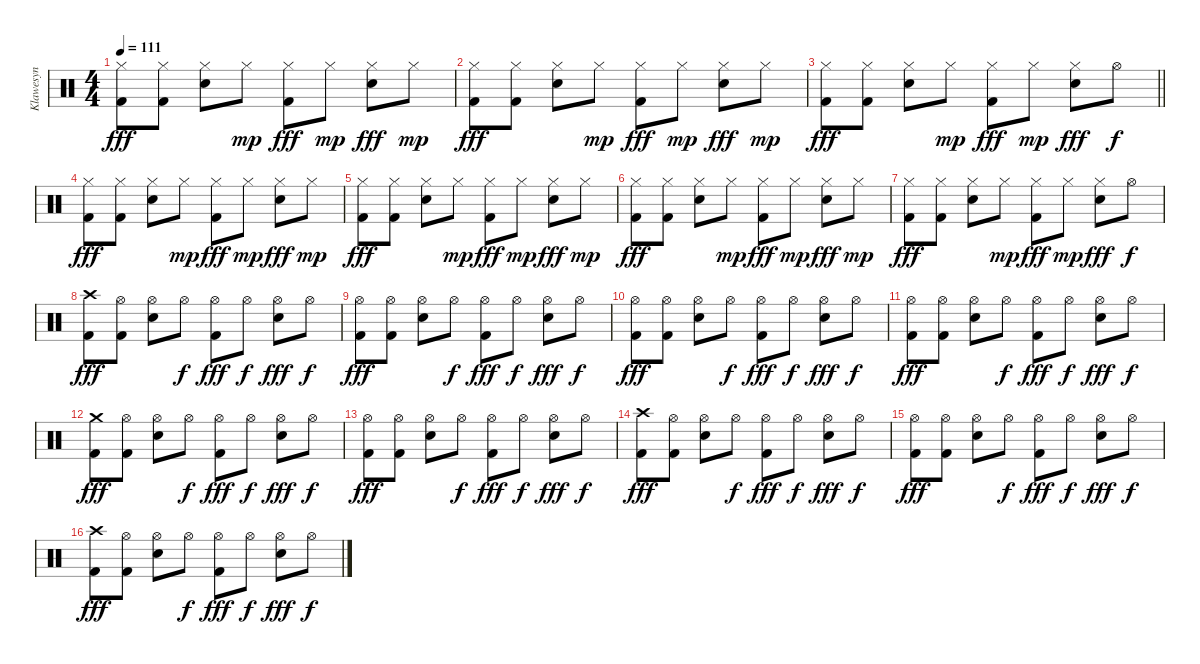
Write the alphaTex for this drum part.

\track ("Klawesyn" "Klawesyn") {instrument percussion}
\staff {score}
\articulation defaults
\ts (4 4)
\tempo 111
\clef neutral
\ks c
("Hi-Hat (closed)" "Kick (hit) 2").8{dy fff} ("Hi-Hat (closed)" "Kick (hit) 2").8 ("Hi-Hat (closed)" "Snare (hit) 2").8 "Hi-Hat (closed)".8{dy mp} ("Hi-Hat (closed)" "Kick (hit) 2").8{dy fff} "Hi-Hat (closed)".8{dy mp} ("Hi-Hat (closed)" "Snare (hit) 2").8{dy fff} "Hi-Hat (closed)".8{dy mp} |
("Hi-Hat (closed)" "Kick (hit) 2").8{dy fff} ("Hi-Hat (closed)" "Kick (hit) 2").8 ("Hi-Hat (closed)" "Snare (hit) 2").8 "Hi-Hat (closed)".8{dy mp} ("Hi-Hat (closed)" "Kick (hit) 2").8{dy fff} "Hi-Hat (closed)".8{dy mp} ("Hi-Hat (closed)" "Snare (hit) 2").8{dy fff} "Hi-Hat (closed)".8{dy mp} |
\barLineRight lightlight
("Hi-Hat (closed)" "Kick (hit) 2").8{dy fff} ("Hi-Hat (closed)" "Kick (hit) 2").8 ("Hi-Hat (closed)" "Snare (hit) 2").8 "Hi-Hat (closed)".8{dy mp} ("Hi-Hat (closed)" "Kick (hit) 2").8{dy fff} "Hi-Hat (closed)".8{dy mp} ("Hi-Hat (closed)" "Snare (hit) 2").8{dy fff} "Hi-Hat (open)".8{dy f} |
("Hi-Hat (closed)" "Kick (hit) 2").8{dy fff} ("Hi-Hat (closed)" "Kick (hit) 2").8 ("Hi-Hat (closed)" "Snare (hit) 2").8 "Hi-Hat (closed)".8{dy mp} ("Hi-Hat (closed)" "Kick (hit) 2").8{dy fff} "Hi-Hat (closed)".8{dy mp} ("Hi-Hat (closed)" "Snare (hit) 2").8{dy fff} "Hi-Hat (closed)".8{dy mp} |
("Hi-Hat (closed)" "Kick (hit) 2").8{dy fff} ("Hi-Hat (closed)" "Kick (hit) 2").8 ("Hi-Hat (closed)" "Snare (hit) 2").8 "Hi-Hat (closed)".8{dy mp} ("Hi-Hat (closed)" "Kick (hit) 2").8{dy fff} "Hi-Hat (closed)".8{dy mp} ("Hi-Hat (closed)" "Snare (hit) 2").8{dy fff} "Hi-Hat (closed)".8{dy mp} |
("Hi-Hat (closed)" "Kick (hit) 2").8{dy fff} ("Hi-Hat (closed)" "Kick (hit) 2").8 ("Hi-Hat (closed)" "Snare (hit) 2").8 "Hi-Hat (closed)".8{dy mp} ("Hi-Hat (closed)" "Kick (hit) 2").8{dy fff} "Hi-Hat (closed)".8{dy mp} ("Hi-Hat (closed)" "Snare (hit) 2").8{dy fff} "Hi-Hat (closed)".8{dy mp} |
("Hi-Hat (closed)" "Kick (hit) 2").8{dy fff} ("Hi-Hat (closed)" "Kick (hit) 2").8 ("Hi-Hat (closed)" "Snare (hit) 2").8 "Hi-Hat (closed)".8{dy mp} ("Hi-Hat (closed)" "Kick (hit) 2").8{dy fff} "Hi-Hat (closed)".8{dy mp} ("Hi-Hat (closed)" "Snare (hit) 2").8{dy fff} "Hi-Hat (open)".8{dy f} |
("Crash high (hit)" "Kick (hit) 2").8{dy fff} ("Hi-Hat (open)" "Kick (hit) 2").8 ("Hi-Hat (open)" "Snare (hit) 2").8 "Hi-Hat (open)".8{dy f} ("Hi-Hat (open)" "Kick (hit) 2").8{dy fff} "Hi-Hat (open)".8{dy f} ("Hi-Hat (open)" "Snare (hit) 2").8{dy fff} "Hi-Hat (open)".8{dy f} |
("Hi-Hat (open)" "Kick (hit) 2").8{dy fff} ("Hi-Hat (open)" "Kick (hit) 2").8 ("Hi-Hat (open)" "Snare (hit) 2").8 "Hi-Hat (open)".8{dy f} ("Hi-Hat (open)" "Kick (hit) 2").8{dy fff} "Hi-Hat (open)".8{dy f} ("Hi-Hat (open)" "Snare (hit) 2").8{dy fff} "Hi-Hat (open)".8{dy f} |
("Hi-Hat (open)" "Kick (hit) 2").8{dy fff} ("Hi-Hat (open)" "Kick (hit) 2").8 ("Hi-Hat (open)" "Snare (hit) 2").8 "Hi-Hat (open)".8{dy f} ("Hi-Hat (open)" "Kick (hit) 2").8{dy fff} "Hi-Hat (open)".8{dy f} ("Hi-Hat (open)" "Snare (hit) 2").8{dy fff} "Hi-Hat (open)".8{dy f} |
("Hi-Hat (open)" "Kick (hit) 2").8{dy fff} ("Hi-Hat (open)" "Kick (hit) 2").8 ("Hi-Hat (open)" "Snare (hit) 2").8 "Hi-Hat (open)".8{dy f} ("Hi-Hat (open)" "Kick (hit) 2").8{dy fff} "Hi-Hat (open)".8{dy f} ("Hi-Hat (open)" "Snare (hit) 2").8{dy fff} "Hi-Hat (open)".8{dy f} |
("Crash medium (hit)" "Kick (hit) 2").8{dy fff} ("Hi-Hat (open)" "Kick (hit) 2").8 ("Hi-Hat (open)" "Snare (hit) 2").8 "Hi-Hat (open)".8{dy f} ("Hi-Hat (open)" "Kick (hit) 2").8{dy fff} "Hi-Hat (open)".8{dy f} ("Hi-Hat (open)" "Snare (hit) 2").8{dy fff} "Hi-Hat (open)".8{dy f} |
("Hi-Hat (open)" "Kick (hit) 2").8{dy fff} ("Hi-Hat (open)" "Kick (hit) 2").8 ("Hi-Hat (open)" "Snare (hit) 2").8 "Hi-Hat (open)".8{dy f} ("Hi-Hat (open)" "Kick (hit) 2").8{dy fff} "Hi-Hat (open)".8{dy f} ("Hi-Hat (open)" "Snare (hit) 2").8{dy fff} "Hi-Hat (open)".8{dy f} |
("Crash high (hit)" "Kick (hit) 2").8{dy fff} ("Hi-Hat (open)" "Kick (hit) 2").8 ("Hi-Hat (open)" "Snare (hit) 2").8 "Hi-Hat (open)".8{dy f} ("Hi-Hat (open)" "Kick (hit) 2").8{dy fff} "Hi-Hat (open)".8{dy f} ("Hi-Hat (open)" "Snare (hit) 2").8{dy fff} "Hi-Hat (open)".8{dy f} |
("Hi-Hat (open)" "Kick (hit) 2").8{dy fff} ("Hi-Hat (open)" "Kick (hit) 2").8 ("Hi-Hat (open)" "Snare (hit) 2").8 "Hi-Hat (open)".8{dy f} ("Hi-Hat (open)" "Kick (hit) 2").8{dy fff} "Hi-Hat (open)".8{dy f} ("Hi-Hat (open)" "Snare (hit) 2").8{dy fff} "Hi-Hat (open)".8{dy f} |
("Crash high (hit)" "Kick (hit) 2").8{dy fff} ("Hi-Hat (open)" "Kick (hit) 2").8 ("Hi-Hat (open)" "Snare (hit) 2").8 "Hi-Hat (open)".8{dy f} ("Hi-Hat (open)" "Kick (hit) 2").8{dy fff} "Hi-Hat (open)".8{dy f} ("Hi-Hat (open)" "Snare (hit) 2").8{dy fff} "Hi-Hat (open)".8{dy f}
